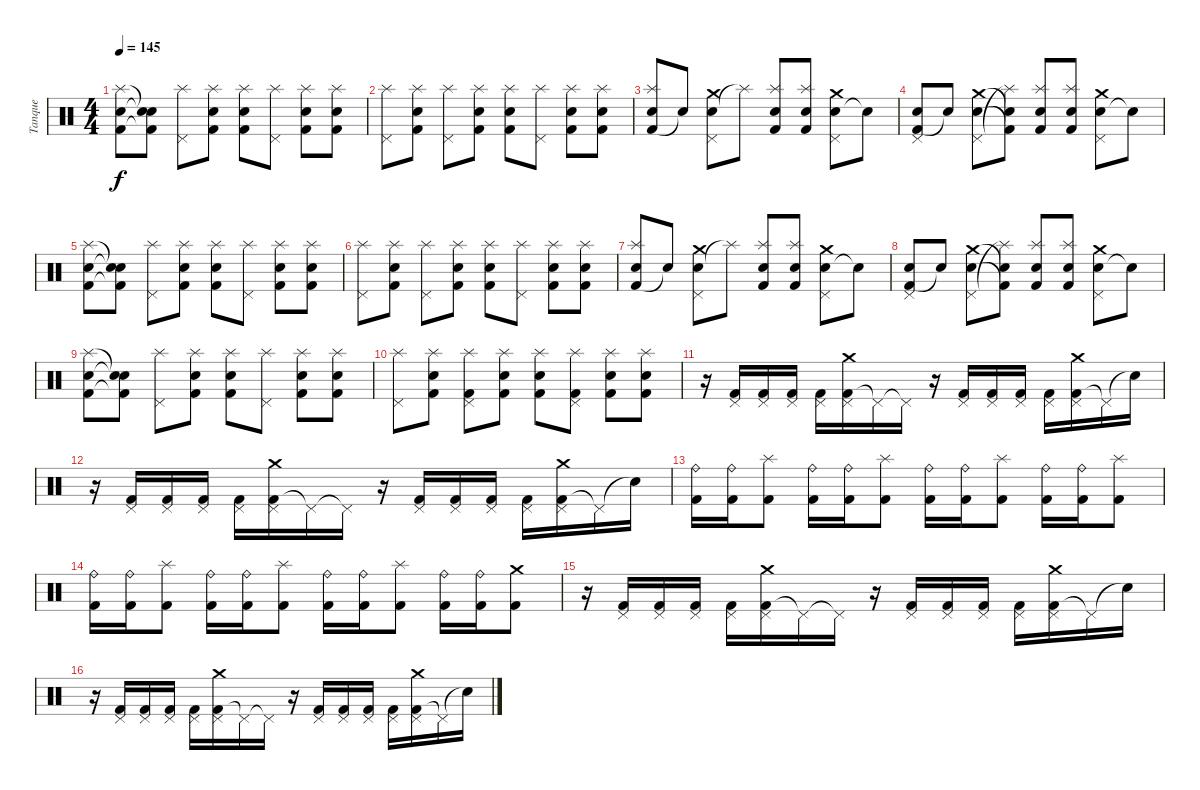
\track ("Tanque" "Tanque") {instrument percussion}
\staff {score}
\articulation defaults
\ts (4 4)
\tempo 145
\clef neutral
\ks c
("Kick (hit) 2" "Snare (hit) 2" "Splash (hit)").8{dy f} ("Kick (hit) 2"{t} "Snare (hit)"{t} "Snare (hit)"{t}).8 ("Pedal Hi-Hat (hit)" "Splash (hit)").8 ("Kick (hit) 2" "Snare (hit) 2" "Splash (hit)").8 ("Kick (hit) 2" "Snare (hit) 2" "Splash (hit)").8 ("Pedal Hi-Hat (hit)" "Splash (hit)").8 ("Kick (hit) 2" "Snare (hit) 2" "Splash (hit)").8 ("Kick (hit) 2" "Snare (hit) 2" "Splash (hit)").8 |
("Pedal Hi-Hat (hit)" "Splash (hit)").8 ("Kick (hit) 2" "Snare (hit) 2" "Splash (hit)").8 ("Pedal Hi-Hat (hit)" "Splash (hit)").8 ("Kick (hit) 2" "Snare (hit) 2" "Splash (hit)").8 ("Kick (hit) 2" "Snare (hit) 2" "Splash (hit)").8 ("Pedal Hi-Hat (hit)" "Splash (hit)").8 ("Kick (hit) 2" "Snare (hit) 2" "Splash (hit)").8 ("Kick (hit) 2" "Snare (hit) 2" "Splash (hit)").8 |
("Kick (hit) 2" "Electric Snare (hit)" "Splash (hit)").8 "Snare (hit)"{t}.8 ("Snare (hit) 2" "Crash medium (hit)" "Pedal Hi-Hat (hit)").8 "Splash (hit)"{t}.8 ("Kick (hit) 2" "Electric Snare (hit)" "Splash (hit)").8 ("Kick (hit) 2" "Electric Snare (hit)" "Splash (hit)").8 ("Snare (hit) 2" "Crash medium (hit)" "Pedal Hi-Hat (hit)").8 "Snare (hit)"{t}.8 |
("Kick (hit) 2" "Electric Snare (hit)" "Pedal Hi-Hat (hit)").8 "Snare (hit)"{t}.8 ("Snare (hit) 2" "Crash medium (hit)" "Pedal Hi-Hat (hit)").8 ("Kick (hit) 2"{t} "Electric Snare (hit)"{t} "Splash (hit)"{t}).8 ("Kick (hit) 2" "Electric Snare (hit)" "Splash (hit)").8 ("Kick (hit) 2" "Electric Snare (hit)" "Splash (hit)").8 ("Snare (hit) 2" "Crash medium (hit)" "Pedal Hi-Hat (hit)").8 "Snare (hit)"{t}.8 |
("Kick (hit) 2" "Snare (hit) 2" "Splash (hit)").8 ("Kick (hit) 2"{t} "Snare (hit)"{t} "Snare (hit)"{t}).8 ("Pedal Hi-Hat (hit)" "Splash (hit)").8 ("Kick (hit) 2" "Snare (hit) 2" "Splash (hit)").8 ("Kick (hit) 2" "Snare (hit) 2" "Splash (hit)").8 ("Pedal Hi-Hat (hit)" "Splash (hit)").8 ("Kick (hit) 2" "Snare (hit) 2" "Splash (hit)").8 ("Kick (hit) 2" "Snare (hit) 2" "Splash (hit)").8 |
("Pedal Hi-Hat (hit)" "Splash (hit)").8 ("Kick (hit) 2" "Snare (hit) 2" "Splash (hit)").8 ("Pedal Hi-Hat (hit)" "Splash (hit)").8 ("Kick (hit) 2" "Snare (hit) 2" "Splash (hit)").8 ("Kick (hit) 2" "Snare (hit) 2" "Splash (hit)").8 ("Pedal Hi-Hat (hit)" "Splash (hit)").8 ("Kick (hit) 2" "Snare (hit) 2" "Splash (hit)").8 ("Kick (hit) 2" "Snare (hit) 2" "Splash (hit)").8 |
("Kick (hit) 2" "Electric Snare (hit)" "Splash (hit)").8 "Snare (hit)"{t}.8 ("Snare (hit) 2" "Crash medium (hit)" "Pedal Hi-Hat (hit)").8 "Splash (hit)"{t}.8 ("Kick (hit) 2" "Electric Snare (hit)" "Splash (hit)").8 ("Kick (hit) 2" "Electric Snare (hit)" "Splash (hit)").8 ("Snare (hit) 2" "Crash medium (hit)" "Pedal Hi-Hat (hit)").8 "Snare (hit)"{t}.8 |
("Kick (hit) 2" "Electric Snare (hit)" "Pedal Hi-Hat (hit)").8 "Snare (hit)"{t}.8 ("Snare (hit) 2" "Crash medium (hit)" "Pedal Hi-Hat (hit)").8 ("Kick (hit) 2"{t} "Electric Snare (hit)"{t} "Splash (hit)"{t}).8 ("Kick (hit) 2" "Electric Snare (hit)" "Splash (hit)").8 ("Kick (hit) 2" "Electric Snare (hit)" "Splash (hit)").8 ("Snare (hit) 2" "Crash medium (hit)" "Pedal Hi-Hat (hit)").8 "Snare (hit)"{t}.8 |
("Kick (hit) 2" "Snare (hit) 2" "Splash (hit)").8 ("Kick (hit) 2"{t} "Snare (hit)"{t} "Snare (hit)"{t}).8 ("Pedal Hi-Hat (hit)" "Splash (hit)").8 ("Kick (hit) 2" "Snare (hit) 2" "Splash (hit)").8 ("Kick (hit) 2" "Snare (hit) 2" "Splash (hit)").8 ("Pedal Hi-Hat (hit)" "Splash (hit)").8 ("Kick (hit) 2" "Snare (hit) 2" "Splash (hit)").8 ("Kick (hit) 2" "Snare (hit) 2" "Splash (hit)").8 |
("Pedal Hi-Hat (hit)" "Splash (hit)").8 ("Kick (hit) 2" "Snare (hit) 2" "Splash (hit)").8 ("Kick (hit) 2" "Pedal Hi-Hat (hit)" "Splash (hit)").8 ("Kick (hit) 2" "Snare (hit) 2" "Splash (hit)").8 ("Kick (hit) 2" "Snare (hit) 2" "Splash (hit)").8 ("Kick (hit) 2" "Pedal Hi-Hat (hit)" "Splash (hit)").8 ("Kick (hit) 2" "Snare (hit) 2" "Splash (hit)").8 ("Kick (hit) 2" "Snare (hit) 2" "Splash (hit)").8 |
r.16 ("Kick (hit) 2" "Pedal Hi-Hat (hit)").16 ("Kick (hit) 2" "Pedal Hi-Hat (hit)").16 ("Kick (hit) 2" "Pedal Hi-Hat (hit)").16 ("Kick (hit) 2" "Pedal Hi-Hat (hit)").16 ("Kick (hit) 2" "Pedal Hi-Hat (hit)" "Crash medium (hit)").16 "Pedal Hi-Hat (hit)"{t}.16 "Pedal Hi-Hat (hit)"{t}.16 r.16 ("Kick (hit) 2" "Pedal Hi-Hat (hit)").16 ("Kick (hit) 2" "Pedal Hi-Hat (hit)").16 ("Kick (hit) 2" "Pedal Hi-Hat (hit)").16 ("Kick (hit) 2" "Pedal Hi-Hat (hit)").16 ("Kick (hit) 2" "Pedal Hi-Hat (hit)" "Crash medium (hit)").16 "Pedal Hi-Hat (hit)"{t}.16 "Snare (hit)"{t}.16 |
r.16 ("Kick (hit) 2" "Pedal Hi-Hat (hit)").16 ("Kick (hit) 2" "Pedal Hi-Hat (hit)").16 ("Kick (hit) 2" "Pedal Hi-Hat (hit)").16 ("Kick (hit) 2" "Pedal Hi-Hat (hit)").16 ("Kick (hit) 2" "Pedal Hi-Hat (hit)" "Crash medium (hit)").16 "Pedal Hi-Hat (hit)"{t}.16 "Pedal Hi-Hat (hit)"{t}.16 r.16 ("Kick (hit) 2" "Pedal Hi-Hat (hit)").16 ("Kick (hit) 2" "Pedal Hi-Hat (hit)").16 ("Kick (hit) 2" "Pedal Hi-Hat (hit)").16 ("Kick (hit) 2" "Pedal Hi-Hat (hit)").16 ("Kick (hit) 2" "Pedal Hi-Hat (hit)" "Crash medium (hit)").16 "Pedal Hi-Hat (hit)"{t}.16 "Snare (hit)"{t}.16 |
("Kick (hit) 2" "Ride (bell)").16 ("Kick (hit) 2" "Ride (bell)").16 ("Kick (hit) 2" "Splash (hit)").8 ("Kick (hit) 2" "Ride (bell)").16 ("Kick (hit) 2" "Ride (bell)").16 ("Kick (hit) 2" "Splash (hit)").8 ("Kick (hit) 2" "Ride (bell)").16 ("Kick (hit) 2" "Ride (bell)").16 ("Kick (hit) 2" "Splash (hit)").8 ("Kick (hit) 2" "Ride (bell)").16 ("Kick (hit) 2" "Ride (bell)").16 ("Kick (hit) 2" "Splash (hit)").8 |
("Kick (hit) 2" "Ride (bell)").16 ("Kick (hit) 2" "Ride (bell)").16 ("Kick (hit) 2" "Splash (hit)").8 ("Kick (hit) 2" "Ride (bell)").16 ("Kick (hit) 2" "Ride (bell)").16 ("Kick (hit) 2" "Splash (hit)").8 ("Kick (hit) 2" "Ride (bell)").16 ("Kick (hit) 2" "Ride (bell)").16 ("Kick (hit) 2" "Splash (hit)").8 ("Kick (hit) 2" "Ride (bell)").16 ("Kick (hit) 2" "Ride (bell)").16 ("Kick (hit) 2" "Crash medium (hit)").8 |
r.16 ("Kick (hit) 2" "Pedal Hi-Hat (hit)").16 ("Kick (hit) 2" "Pedal Hi-Hat (hit)").16 ("Kick (hit) 2" "Pedal Hi-Hat (hit)").16 ("Kick (hit) 2" "Pedal Hi-Hat (hit)").16 ("Kick (hit) 2" "Pedal Hi-Hat (hit)" "Crash medium (hit)").16 "Pedal Hi-Hat (hit)"{t}.16 "Pedal Hi-Hat (hit)"{t}.16 r.16 ("Kick (hit) 2" "Pedal Hi-Hat (hit)").16 ("Kick (hit) 2" "Pedal Hi-Hat (hit)").16 ("Kick (hit) 2" "Pedal Hi-Hat (hit)").16 ("Kick (hit) 2" "Pedal Hi-Hat (hit)").16 ("Kick (hit) 2" "Pedal Hi-Hat (hit)" "Crash medium (hit)").16 "Pedal Hi-Hat (hit)"{t}.16 "Snare (hit)"{t}.16 |
r.16 ("Kick (hit) 2" "Pedal Hi-Hat (hit)").16 ("Kick (hit) 2" "Pedal Hi-Hat (hit)").16 ("Kick (hit) 2" "Pedal Hi-Hat (hit)").16 ("Kick (hit) 2" "Pedal Hi-Hat (hit)").16 ("Kick (hit) 2" "Pedal Hi-Hat (hit)" "Crash medium (hit)").16 "Pedal Hi-Hat (hit)"{t}.16 "Pedal Hi-Hat (hit)"{t}.16 r.16 ("Kick (hit) 2" "Pedal Hi-Hat (hit)").16 ("Kick (hit) 2" "Pedal Hi-Hat (hit)").16 ("Kick (hit) 2" "Pedal Hi-Hat (hit)").16 ("Kick (hit) 2" "Pedal Hi-Hat (hit)").16 ("Kick (hit) 2" "Pedal Hi-Hat (hit)" "Crash medium (hit)").16 "Pedal Hi-Hat (hit)"{t}.16 "Snare (hit)"{t}.16
